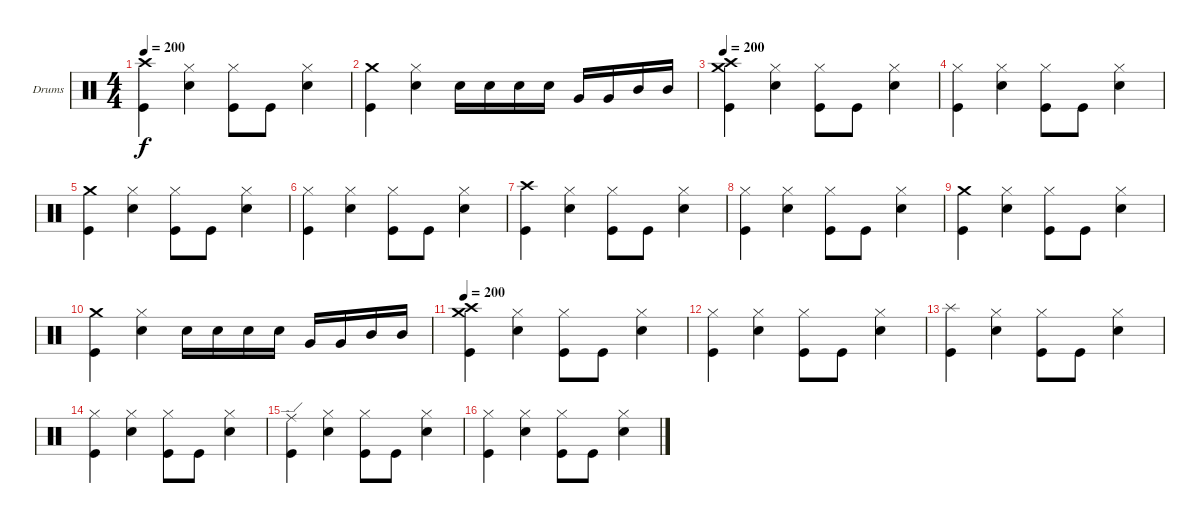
\bracketExtendMode groupsimilarinstruments
\firstSystemTrackNameOrientation horizontal
\otherSystemsTrackNameOrientation horizontal
\track ("Drumkit" "Drums") {instrument percussion}
\staff {score}
\articulation defaults
\ts (4 4)
\tempo 200
\clef neutral
\ks c
("Crash high (hit)" "Kick (hit)").4{dy f} ("Hi-Hat (closed)" "Snare (hit) 2").4 ("Hi-Hat (closed)" "Kick (hit)").8 "Kick (hit)".8 ("Hi-Hat (closed)" "Snare (hit) 2").4 |
("Crash medium (hit)" "Kick (hit)").4 ("Hi-Hat (closed)" "Snare (hit) 2").4 "Snare (hit) 2".16 "Snare (hit) 2".16 "Snare (hit) 2".16 "Snare (hit) 2".16 "Very Low Tom (hit)".16 "Very Low Tom (hit)".16 "Mid Tom (hit)".16 "Mid Tom (hit)".16 |
\tempo 200
("Crash high (hit)" "Crash medium (hit)" "Kick (hit)").4 ("Hi-Hat (closed)" "Snare (hit) 2").4 ("Hi-Hat (closed)" "Kick (hit)").8 "Kick (hit)".8 ("Hi-Hat (closed)" "Snare (hit) 2").4 |
("Hi-Hat (closed)" "Kick (hit)").4 ("Hi-Hat (closed)" "Snare (hit) 2").4 ("Hi-Hat (closed)" "Kick (hit)").8 "Kick (hit)".8 ("Hi-Hat (closed)" "Snare (hit) 2").4 |
("Crash medium (hit)" "Kick (hit)").4 ("Hi-Hat (closed)" "Snare (hit) 2").4 ("Hi-Hat (closed)" "Kick (hit)").8 "Kick (hit)".8 ("Hi-Hat (closed)" "Snare (hit) 2").4 |
("Hi-Hat (closed)" "Kick (hit)").4 ("Hi-Hat (closed)" "Snare (hit) 2").4 ("Hi-Hat (closed)" "Kick (hit)").8 "Kick (hit)".8 ("Hi-Hat (closed)" "Snare (hit) 2").4 |
("Crash high (hit)" "Kick (hit)").4 ("Hi-Hat (closed)" "Snare (hit) 2").4 ("Hi-Hat (closed)" "Kick (hit)").8 "Kick (hit)".8 ("Hi-Hat (closed)" "Snare (hit) 2").4 |
("Hi-Hat (closed)" "Kick (hit)").4 ("Hi-Hat (closed)" "Snare (hit) 2").4 ("Hi-Hat (closed)" "Kick (hit)").8 "Kick (hit)".8 ("Hi-Hat (closed)" "Snare (hit) 2").4 |
("Crash medium (hit)" "Kick (hit)").4 ("Hi-Hat (closed)" "Snare (hit) 2").4 ("Hi-Hat (closed)" "Kick (hit)").8 "Kick (hit)".8 ("Hi-Hat (closed)" "Snare (hit) 2").4 |
("Crash medium (hit)" "Kick (hit)").4 ("Hi-Hat (closed)" "Snare (hit) 2").4 "Snare (hit) 2".16 "Snare (hit) 2".16 "Snare (hit) 2".16 "Snare (hit) 2".16 "Very Low Tom (hit)".16 "Very Low Tom (hit)".16 "Mid Tom (hit)".16 "Mid Tom (hit)".16 |
\tempo 200
("Crash medium (hit)" "Crash high (hit)" "Kick (hit)").4 ("Hi-Hat (closed)" "Snare (hit) 2").4 ("Hi-Hat (closed)" "Kick (hit)").8 "Kick (hit)".8 ("Hi-Hat (closed)" "Snare (hit) 2").4 |
("Hi-Hat (closed)" "Kick (hit)").4 ("Hi-Hat (closed)" "Snare (hit) 2").4 ("Hi-Hat (closed)" "Kick (hit)").8 "Kick (hit)".8 ("Hi-Hat (closed)" "Snare (hit) 2").4 |
("Splash (hit)" "Kick (hit)").4 ("Hi-Hat (closed)" "Snare (hit) 2").4 ("Hi-Hat (closed)" "Kick (hit)").8 "Kick (hit)".8 ("Hi-Hat (closed)" "Snare (hit) 2").4 |
("Hi-Hat (closed)" "Kick (hit)").4 ("Hi-Hat (closed)" "Snare (hit) 2").4 ("Hi-Hat (closed)" "Kick (hit)").8 "Kick (hit)".8 ("Hi-Hat (closed)" "Snare (hit) 2").4 |
("Ride (edge)" "Kick (hit)").4 ("Hi-Hat (closed)" "Snare (hit) 2").4 ("Hi-Hat (closed)" "Kick (hit)").8 "Kick (hit)".8 ("Hi-Hat (closed)" "Snare (hit) 2").4 |
("Hi-Hat (closed)" "Kick (hit)").4 ("Hi-Hat (closed)" "Snare (hit) 2").4 ("Hi-Hat (closed)" "Kick (hit)").8 "Kick (hit)".8 ("Hi-Hat (closed)" "Snare (hit) 2").4
